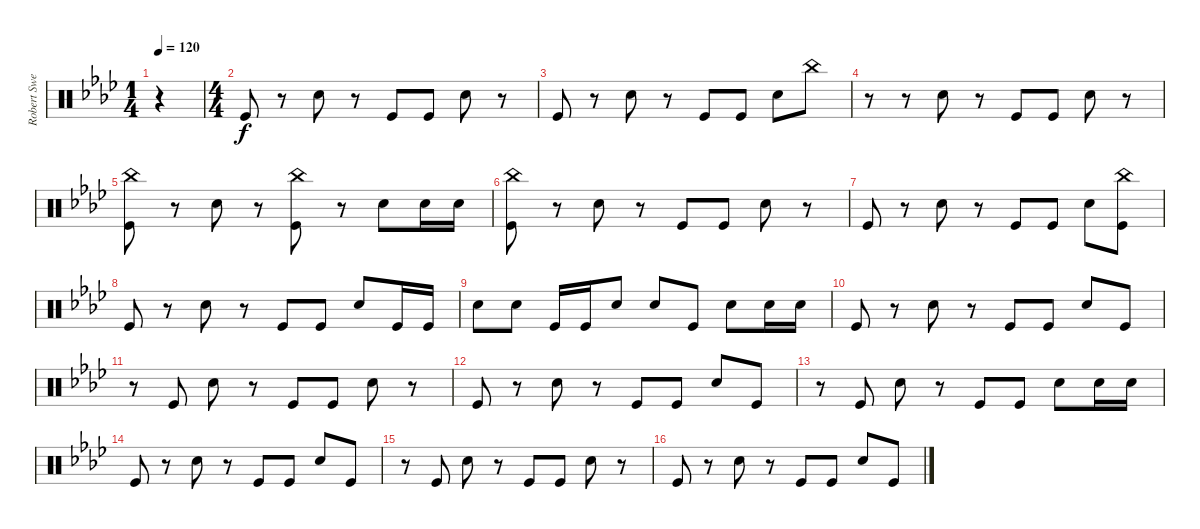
\track ("Robert Sweet" "Robert Swe") {instrument percussion}
\staff {score}
\articulation defaults
\ts (1 4)
\tempo 120
\clef neutral
\ks ab
r.4{dy f} |
\ts (4 4)
"Kick (hit)".8 r.8 "Snare (hit) 2".8 r.8 "Kick (hit)".8 "Kick (hit)".8 "Snare (hit) 2".8 r.8 |
"Kick (hit)".8 r.8 "Snare (hit) 2".8 r.8 "Kick (hit)".8 "Kick (hit)".8 "Snare (hit) 2".8 "China (hit)".8 |
r.8 r.8 "Snare (hit) 2".8 r.8 "Kick (hit)".8 "Kick (hit)".8 "Snare (hit) 2".8 r.8 |
("Kick (hit)" "China (hit)").8 r.8 "Snare (hit) 2".8 r.8 ("Kick (hit)" "China (hit)").8 r.8 "Snare (hit) 2".8 "Snare (hit) 2".16 "Snare (hit) 2".16 |
("Kick (hit)" "China (hit)").8 r.8 "Snare (hit) 2".8 r.8 "Kick (hit)".8 "Kick (hit)".8 "Snare (hit) 2".8 r.8 |
"Kick (hit)".8 r.8 "Snare (hit) 2".8 r.8 "Kick (hit)".8 "Kick (hit)".8 "Snare (hit) 2".8 ("Kick (hit)" "China (hit)").8 |
"Kick (hit)".8 r.8 "Snare (hit) 2".8 r.8 "Kick (hit)".8 "Kick (hit)".8 "Snare (hit) 2".8 "Kick (hit)".16 "Kick (hit)".16 |
"Snare (hit) 2".8 "Snare (hit) 2".8 "Kick (hit)".16 "Kick (hit)".16 "Snare (hit) 2".8 "Snare (hit) 2".8 "Kick (hit)".8 "Snare (hit) 2".8 "Snare (hit) 2".16 "Snare (hit) 2".16 |
"Kick (hit)".8 r.8 "Snare (hit) 2".8 r.8 "Kick (hit)".8 "Kick (hit)".8 "Snare (hit) 2".8 "Kick (hit)".8 |
r.8 "Kick (hit)".8 "Snare (hit) 2".8 r.8 "Kick (hit)".8 "Kick (hit)".8 "Snare (hit) 2".8 r.8 |
"Kick (hit)".8 r.8 "Snare (hit) 2".8 r.8 "Kick (hit)".8 "Kick (hit)".8 "Snare (hit) 2".8 "Kick (hit)".8 |
r.8 "Kick (hit)".8 "Snare (hit) 2".8 r.8 "Kick (hit)".8 "Kick (hit)".8 "Snare (hit) 2".8 "Snare (hit) 2".16 "Snare (hit) 2".16 |
"Kick (hit)".8 r.8 "Snare (hit) 2".8 r.8 "Kick (hit)".8 "Kick (hit)".8 "Snare (hit) 2".8 "Kick (hit)".8 |
r.8 "Kick (hit)".8 "Snare (hit) 2".8 r.8 "Kick (hit)".8 "Kick (hit)".8 "Snare (hit) 2".8 r.8 |
"Kick (hit)".8 r.8 "Snare (hit) 2".8 r.8 "Kick (hit)".8 "Kick (hit)".8 "Snare (hit) 2".8 "Kick (hit)".8
